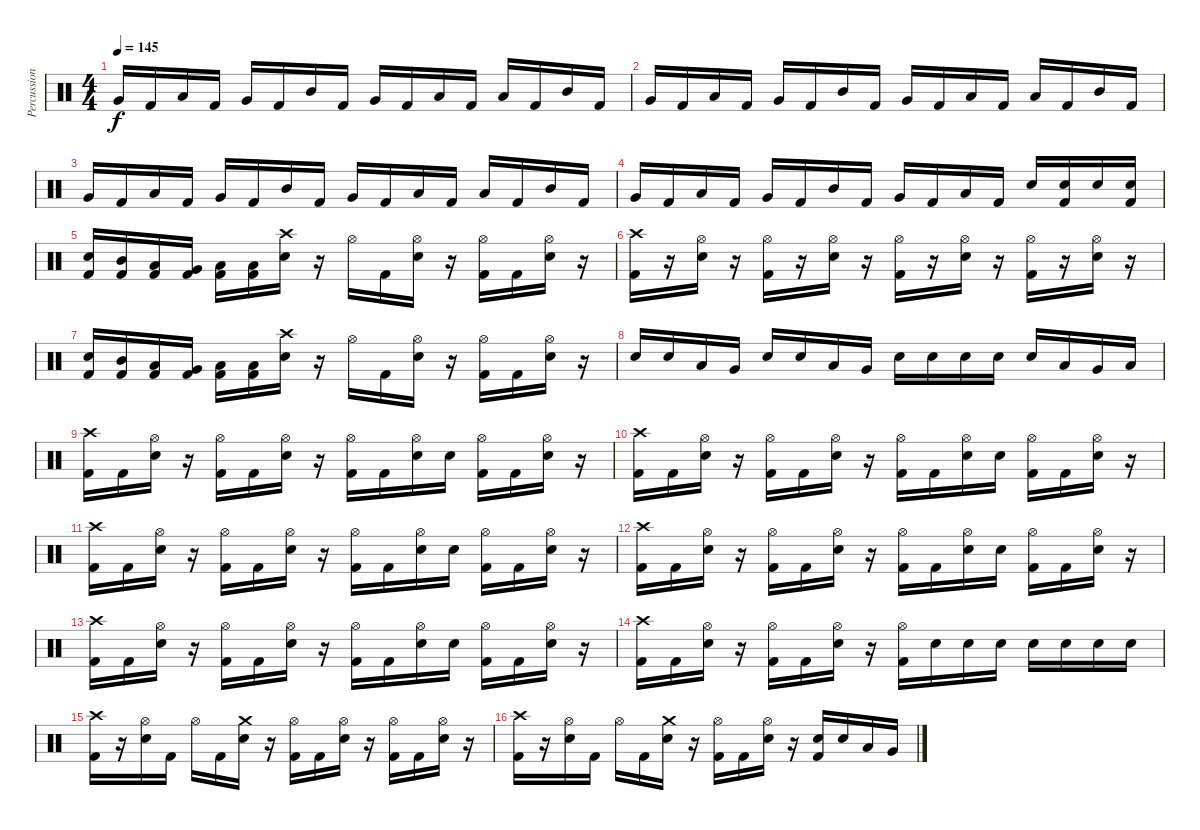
\track ("Percussion - pinch" "Percussion") {instrument percussion}
\staff
\articulation defaults
\ts (4 4)
\tempo 145
\clef neutral
\ks c "Very Low Tom (hit)".16{dy f} "Kick (hit) 2".16 "Low Tom (hit)".16 "Kick (hit) 2".16 "Very Low Tom (hit)".16 "Kick (hit) 2".16 "Mid Tom (hit)".16 "Kick (hit) 2".16 "Very Low Tom (hit)".16 "Kick (hit) 2".16 "Low Tom (hit)".16 "Kick (hit) 2".16 "Low Floor Tom (hit)".16 "Kick (hit) 2".16 "Mid Tom (hit)".16 "Kick (hit) 2".16
|
"Very Low Tom (hit)".16 "Kick (hit) 2".16 "Low Tom (hit)".16 "Kick (hit) 2".16 "Very Low Tom (hit)".16 "Kick (hit) 2".16 "Mid Tom (hit)".16 "Kick (hit) 2".16 "Very Low Tom (hit)".16 "Kick (hit) 2".16 "Low Tom (hit)".16 "Kick (hit) 2".16 "Low Floor Tom (hit)".16 "Kick (hit) 2".16 "Mid Tom (hit)".16 "Kick (hit) 2".16 |
"Very Low Tom (hit)".16 "Kick (hit) 2".16 "Low Tom (hit)".16 "Kick (hit) 2".16 "Very Low Tom (hit)".16 "Kick (hit) 2".16 "Mid Tom (hit)".16 "Kick (hit) 2".16 "Very Low Tom (hit)".16 "Kick (hit) 2".16 "Low Tom (hit)".16 "Kick (hit) 2".16 "Low Floor Tom (hit)".16 "Kick (hit) 2".16 "Mid Tom (hit)".16 "Kick (hit) 2".16 |
"Very Low Tom (hit)".16 "Kick (hit) 2".16 "Low Tom (hit)".16 "Kick (hit) 2".16 "Very Low Tom (hit)".16 "Kick (hit) 2".16 "Mid Tom (hit)".16 "Kick (hit) 2".16 "Very Low Tom (hit)".16 "Kick (hit) 2".16 "Low Tom (hit)".16 "Kick (hit) 2".16 "Electric Snare (hit)".16 ("Electric Snare (hit)" "Kick (hit) 2").16 "Electric Snare (hit)".16 ("Electric Snare (hit)" "Kick (hit) 2").16 |
("Electric Snare (hit)" "Kick (hit) 2").16 ("Mid Tom (hit)" "Kick (hit) 2").16 ("Low Tom (hit)" "Kick (hit) 2").16 ("Very Low Tom (hit)" "Kick (hit) 2").16 ("Low Floor Tom (hit)" "Kick (hit) 2").16 ("Low Floor Tom (hit)" "Kick (hit) 2").16 ("Crash high (hit)" "Electric Snare (hit)").16 r.16 "Hi-Hat (open)".16 "Kick (hit) 2".16 ("Hi-Hat (open)" "Electric Snare (hit)").16 r.16 ("Hi-Hat (open)" "Kick (hit) 2").16 "Kick (hit) 2".16 ("Hi-Hat (open)" "Electric Snare (hit)").16 r.16 |
("Crash high (hit)" "Kick (hit) 2").16 r.16 ("Hi-Hat (open)" "Electric Snare (hit)").16 r.16 ("Hi-Hat (open)" "Kick (hit) 2").16 r.16 ("Hi-Hat (open)" "Electric Snare (hit)").16 r.16 ("Hi-Hat (open)" "Kick (hit) 2").16 r.16 ("Hi-Hat (open)" "Electric Snare (hit)").16 r.16 ("Hi-Hat (open)" "Kick (hit) 2").16 r.16 ("Hi-Hat (open)" "Electric Snare (hit)").16 r.16 |
("Electric Snare (hit)" "Kick (hit) 2").16 ("Mid Tom (hit)" "Kick (hit) 2").16 ("Low Tom (hit)" "Kick (hit) 2").16 ("Very Low Tom (hit)" "Kick (hit) 2").16 ("Low Floor Tom (hit)" "Kick (hit) 2").16 ("Low Floor Tom (hit)" "Kick (hit) 2").16 ("Crash high (hit)" "Electric Snare (hit)").16 r.16 "Hi-Hat (open)".16 "Kick (hit) 2".16 ("Hi-Hat (open)" "Electric Snare (hit)").16 r.16 ("Hi-Hat (open)" "Kick (hit) 2").16 "Kick (hit) 2".16 ("Hi-Hat (open)" "Electric Snare (hit)").16 r.16 |
"Electric Snare (hit)".16 "Electric Snare (hit)".16 "Low Tom (hit)".16 "Very Low Tom (hit)".16 "Electric Snare (hit)".16 "Electric Snare (hit)".16 "Low Tom (hit)".16 "Very Low Tom (hit)".16 "Electric Snare (hit)".16 "Electric Snare (hit)".16 "Electric Snare (hit)".16 "Electric Snare (hit)".16 "Electric Snare (hit)".16 "Low Tom (hit)".16 "Very Low Tom (hit)".16 "Low Floor Tom (hit)".16 |
("Crash high (hit)" "Kick (hit) 2").16 "Kick (hit) 2".16 ("Hi-Hat (open)" "Electric Snare (hit)").16 r.16 ("Hi-Hat (open)" "Kick (hit) 2").16 "Kick (hit) 2".16 ("Hi-Hat (open)" "Electric Snare (hit)").16 r.16 ("Hi-Hat (open)" "Kick (hit) 2").16 "Kick (hit) 2".16 ("Hi-Hat (open)" "Electric Snare (hit)").16 "Electric Snare (hit)".16 ("Hi-Hat (open)" "Kick (hit) 2").16 "Kick (hit) 2".16 ("Hi-Hat (open)" "Electric Snare (hit)").16 r.16 |
("Crash high (hit)" "Kick (hit) 2").16 "Kick (hit) 2".16 ("Hi-Hat (open)" "Electric Snare (hit)").16 r.16 ("Hi-Hat (open)" "Kick (hit) 2").16 "Kick (hit) 2".16 ("Hi-Hat (open)" "Electric Snare (hit)").16 r.16 ("Hi-Hat (open)" "Kick (hit) 2").16 "Kick (hit) 2".16 ("Hi-Hat (open)" "Electric Snare (hit)").16 "Electric Snare (hit)".16 ("Hi-Hat (open)" "Kick (hit) 2").16 "Kick (hit) 2".16 ("Hi-Hat (open)" "Electric Snare (hit)").16 r.16 |
("Crash high (hit)" "Kick (hit) 2").16 "Kick (hit) 2".16 ("Hi-Hat (open)" "Electric Snare (hit)").16 r.16 ("Hi-Hat (open)" "Kick (hit) 2").16 "Kick (hit) 2".16 ("Hi-Hat (open)" "Electric Snare (hit)").16 r.16 ("Hi-Hat (open)" "Kick (hit) 2").16 "Kick (hit) 2".16 ("Hi-Hat (open)" "Electric Snare (hit)").16 "Electric Snare (hit)".16 ("Hi-Hat (open)" "Kick (hit) 2").16 "Kick (hit) 2".16 ("Hi-Hat (open)" "Electric Snare (hit)").16 r.16 |
("Crash high (hit)" "Kick (hit) 2").16 "Kick (hit) 2".16 ("Hi-Hat (open)" "Electric Snare (hit)").16 r.16 ("Hi-Hat (open)" "Kick (hit) 2").16 "Kick (hit) 2".16 ("Hi-Hat (open)" "Electric Snare (hit)").16 r.16 ("Hi-Hat (open)" "Kick (hit) 2").16 "Kick (hit) 2".16 ("Hi-Hat (open)" "Electric Snare (hit)").16 "Electric Snare (hit)".16 ("Hi-Hat (open)" "Kick (hit) 2").16 "Kick (hit) 2".16 ("Hi-Hat (open)" "Electric Snare (hit)").16 r.16 |
("Crash high (hit)" "Kick (hit) 2").16 "Kick (hit) 2".16 ("Hi-Hat (open)" "Electric Snare (hit)").16 r.16 ("Hi-Hat (open)" "Kick (hit) 2").16 "Kick (hit) 2".16 ("Hi-Hat (open)" "Electric Snare (hit)").16 r.16 ("Hi-Hat (open)" "Kick (hit) 2").16 "Kick (hit) 2".16 ("Hi-Hat (open)" "Electric Snare (hit)").16 "Electric Snare (hit)".16 ("Hi-Hat (open)" "Kick (hit) 2").16 "Kick (hit) 2".16 ("Hi-Hat (open)" "Electric Snare (hit)").16 r.16 |
("Crash high (hit)" "Kick (hit) 2").16 "Kick (hit) 2".16 ("Hi-Hat (open)" "Electric Snare (hit)").16 r.16 ("Hi-Hat (open)" "Kick (hit) 2").16 "Kick (hit) 2".16 ("Hi-Hat (open)" "Electric Snare (hit)").16 r.16 ("Hi-Hat (open)" "Kick (hit) 2").16 "Electric Snare (hit)".16 "Electric Snare (hit)".16 "Electric Snare (hit)".16 "Electric Snare (hit)".16 "Electric Snare (hit)".16 "Electric Snare (hit)".16 "Electric Snare (hit)".16 |
("Crash high (hit)" "Kick (hit) 2").16 r.16 ("Hi-Hat (open)" "Electric Snare (hit)").16 "Kick (hit) 2".16 "Hi-Hat (open)".16 "Kick (hit) 2".16 ("Crash medium (hit)" "Electric Snare (hit)").16 r.16 ("Hi-Hat (open)" "Kick (hit) 2").16 "Kick (hit) 2".16 ("Hi-Hat (open)" "Electric Snare (hit)").16 r.16 ("Hi-Hat (open)" "Kick (hit) 2").16 "Kick (hit) 2".16 ("Hi-Hat (open)" "Electric Snare (hit)").16 r.16 |
("Crash high (hit)" "Kick (hit) 2").16 r.16 ("Hi-Hat (open)" "Electric Snare (hit)").16 "Kick (hit) 2".16 "Hi-Hat (open)".16 "Kick (hit) 2".16 ("Crash medium (hit)" "Electric Snare (hit)").16 r.16 ("Hi-Hat (open)" "Kick (hit) 2").16 "Kick (hit) 2".16 ("Hi-Hat (open)" "Electric Snare (hit)").16 r.16 ("Electric Snare (hit)" "Kick (hit) 2").16 "Electric Snare (hit)".16 "Low Tom (hit)".16 "Very Low Tom (hit)".16
